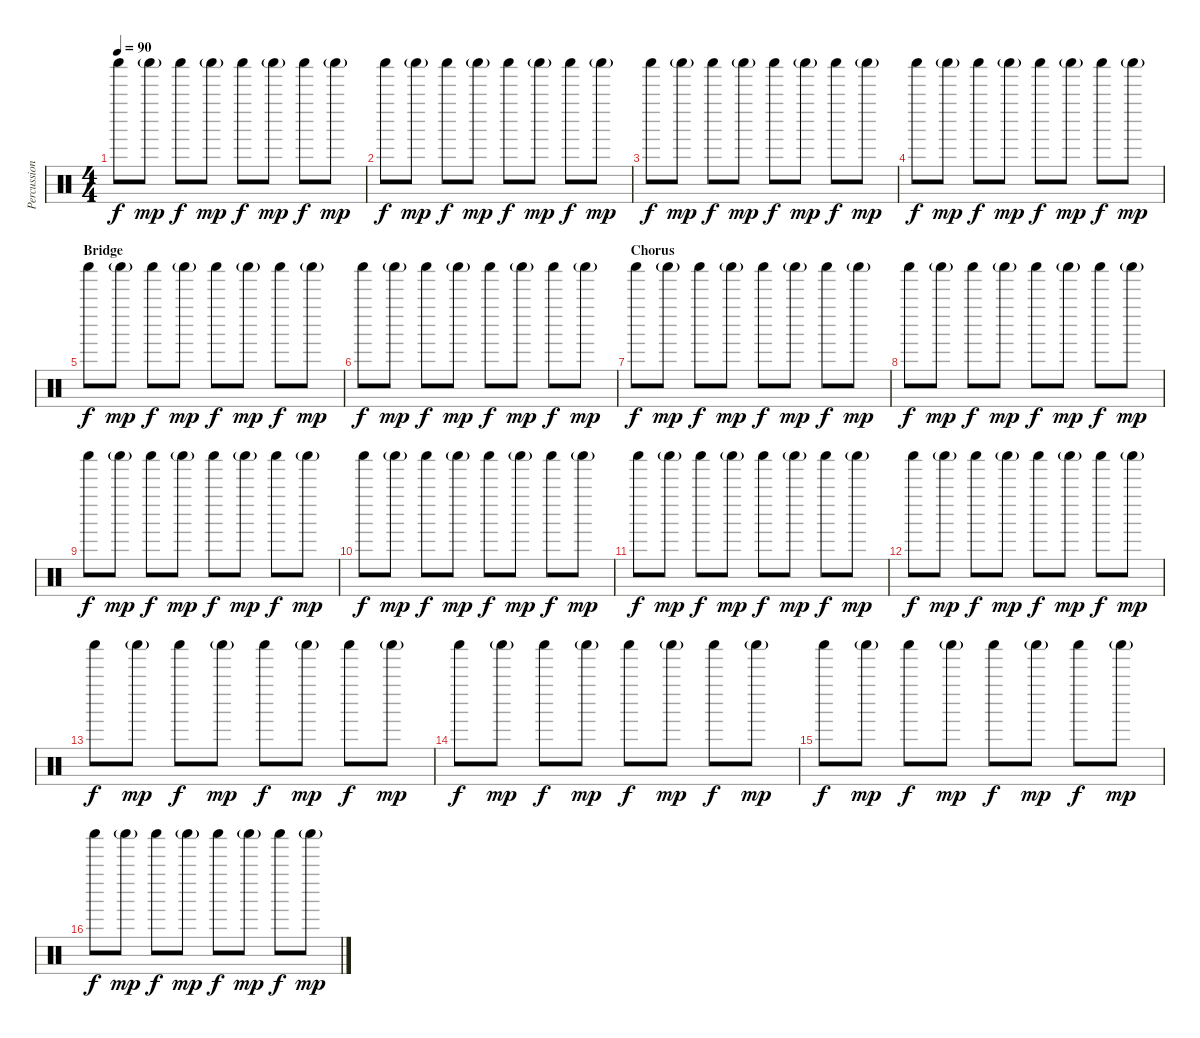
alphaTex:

\track ("Percussion 2" "Percussion") {instrument percussion}
\staff {score}
\articulation defaults
\ts (4 4)
\tempo 90
\clef neutral
\ks c "Shaker (hit)".8{dy f} "Shaker (hit)"{g}.8{dy mp} "Shaker (hit)".8{dy f} "Shaker (hit)"{g}.8{dy mp} "Shaker (hit)".8{dy f} "Shaker (hit)"{g}.8{dy mp} "Shaker (hit)".8{dy f} "Shaker (hit)"{g}.8{dy mp}
|
"Shaker (hit)".8{dy f} "Shaker (hit)"{g}.8{dy mp} "Shaker (hit)".8{dy f} "Shaker (hit)"{g}.8{dy mp} "Shaker (hit)".8{dy f} "Shaker (hit)"{g}.8{dy mp} "Shaker (hit)".8{dy f} "Shaker (hit)"{g}.8{dy mp} |
"Shaker (hit)".8{dy f} "Shaker (hit)"{g}.8{dy mp} "Shaker (hit)".8{dy f} "Shaker (hit)"{g}.8{dy mp} "Shaker (hit)".8{dy f} "Shaker (hit)"{g}.8{dy mp} "Shaker (hit)".8{dy f} "Shaker (hit)"{g}.8{dy mp} |
"Shaker (hit)".8{dy f} "Shaker (hit)"{g}.8{dy mp} "Shaker (hit)".8{dy f} "Shaker (hit)"{g}.8{dy mp} "Shaker (hit)".8{dy f} "Shaker (hit)"{g}.8{dy mp} "Shaker (hit)".8{dy f} "Shaker (hit)"{g}.8{dy mp} |
\section ("" "Bridge")
"Shaker (hit)".8{dy f} "Shaker (hit)"{g}.8{dy mp} "Shaker (hit)".8{dy f} "Shaker (hit)"{g}.8{dy mp} "Shaker (hit)".8{dy f} "Shaker (hit)"{g}.8{dy mp} "Shaker (hit)".8{dy f} "Shaker (hit)"{g}.8{dy mp} |
"Shaker (hit)".8{dy f} "Shaker (hit)"{g}.8{dy mp} "Shaker (hit)".8{dy f} "Shaker (hit)"{g}.8{dy mp} "Shaker (hit)".8{dy f} "Shaker (hit)"{g}.8{dy mp} "Shaker (hit)".8{dy f} "Shaker (hit)"{g}.8{dy mp} |
\section ("" "Chorus")
"Shaker (hit)".8{dy f} "Shaker (hit)"{g}.8{dy mp} "Shaker (hit)".8{dy f} "Shaker (hit)"{g}.8{dy mp} "Shaker (hit)".8{dy f} "Shaker (hit)"{g}.8{dy mp} "Shaker (hit)".8{dy f} "Shaker (hit)"{g}.8{dy mp} |
"Shaker (hit)".8{dy f} "Shaker (hit)"{g}.8{dy mp} "Shaker (hit)".8{dy f} "Shaker (hit)"{g}.8{dy mp} "Shaker (hit)".8{dy f} "Shaker (hit)"{g}.8{dy mp} "Shaker (hit)".8{dy f} "Shaker (hit)"{g}.8{dy mp} |
"Shaker (hit)".8{dy f} "Shaker (hit)"{g}.8{dy mp} "Shaker (hit)".8{dy f} "Shaker (hit)"{g}.8{dy mp} "Shaker (hit)".8{dy f} "Shaker (hit)"{g}.8{dy mp} "Shaker (hit)".8{dy f} "Shaker (hit)"{g}.8{dy mp} |
"Shaker (hit)".8{dy f} "Shaker (hit)"{g}.8{dy mp} "Shaker (hit)".8{dy f} "Shaker (hit)"{g}.8{dy mp} "Shaker (hit)".8{dy f} "Shaker (hit)"{g}.8{dy mp} "Shaker (hit)".8{dy f} "Shaker (hit)"{g}.8{dy mp} |
"Shaker (hit)".8{dy f} "Shaker (hit)"{g}.8{dy mp} "Shaker (hit)".8{dy f} "Shaker (hit)"{g}.8{dy mp} "Shaker (hit)".8{dy f} "Shaker (hit)"{g}.8{dy mp} "Shaker (hit)".8{dy f} "Shaker (hit)"{g}.8{dy mp} |
"Shaker (hit)".8{dy f} "Shaker (hit)"{g}.8{dy mp} "Shaker (hit)".8{dy f} "Shaker (hit)"{g}.8{dy mp} "Shaker (hit)".8{dy f} "Shaker (hit)"{g}.8{dy mp} "Shaker (hit)".8{dy f} "Shaker (hit)"{g}.8{dy mp} |
"Shaker (hit)".8{dy f} "Shaker (hit)"{g}.8{dy mp} "Shaker (hit)".8{dy f} "Shaker (hit)"{g}.8{dy mp} "Shaker (hit)".8{dy f} "Shaker (hit)"{g}.8{dy mp} "Shaker (hit)".8{dy f} "Shaker (hit)"{g}.8{dy mp} |
"Shaker (hit)".8{dy f} "Shaker (hit)"{g}.8{dy mp} "Shaker (hit)".8{dy f} "Shaker (hit)"{g}.8{dy mp} "Shaker (hit)".8{dy f} "Shaker (hit)"{g}.8{dy mp} "Shaker (hit)".8{dy f} "Shaker (hit)"{g}.8{dy mp} |
"Shaker (hit)".8{dy f} "Shaker (hit)"{g}.8{dy mp} "Shaker (hit)".8{dy f} "Shaker (hit)"{g}.8{dy mp} "Shaker (hit)".8{dy f} "Shaker (hit)"{g}.8{dy mp} "Shaker (hit)".8{dy f} "Shaker (hit)"{g}.8{dy mp} |
"Shaker (hit)".8{dy f} "Shaker (hit)"{g}.8{dy mp} "Shaker (hit)".8{dy f} "Shaker (hit)"{g}.8{dy mp} "Shaker (hit)".8{dy f} "Shaker (hit)"{g}.8{dy mp} "Shaker (hit)".8{dy f} "Shaker (hit)"{g}.8{dy mp}
